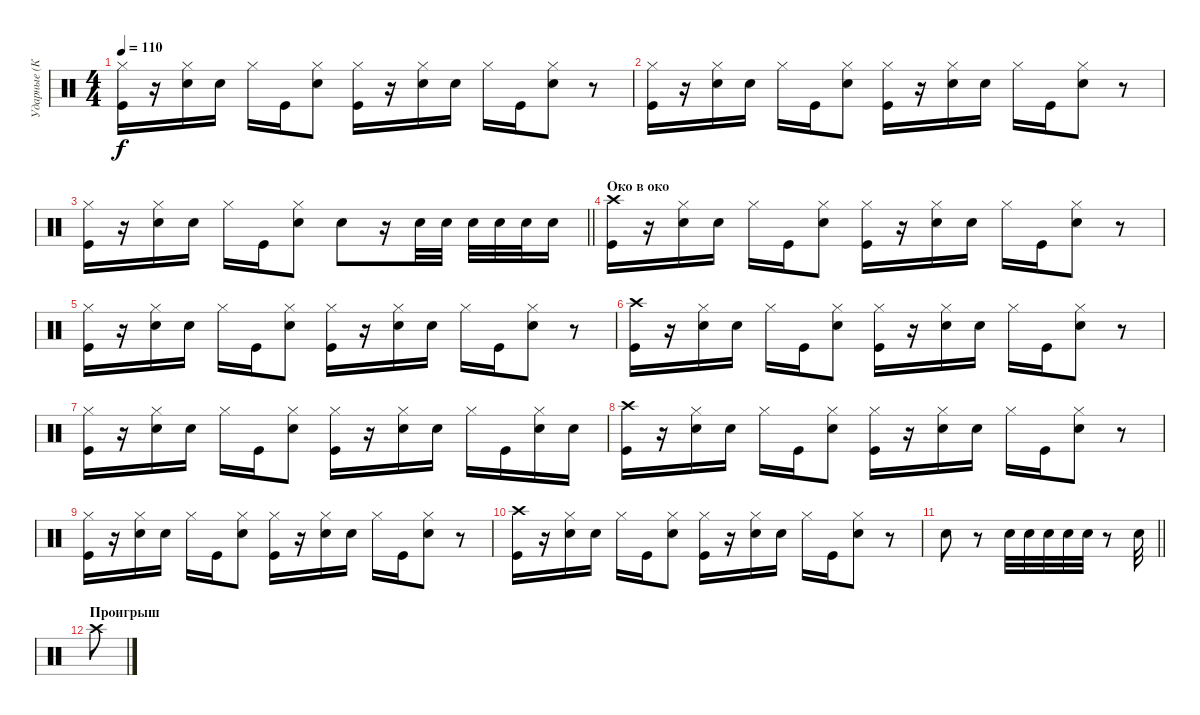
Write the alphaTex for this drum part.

\track ("Ударные (Коля Лысов" "Ударные (К") {instrument percussion}
\staff {score}
\articulation defaults
\ts (4 4)
\tempo 110
\clef neutral
\ks c
("Kick (hit)" "Hi-Hat (closed)").16{dy f} r.16 ("Snare (hit) 2" "Hi-Hat (closed)").16 "Snare (hit) 2".16 "Hi-Hat (closed)".16 "Kick (hit)".16 ("Snare (hit) 2" "Hi-Hat (closed)").8 ("Kick (hit)" "Hi-Hat (closed)").16 r.16 ("Snare (hit) 2" "Hi-Hat (closed)").16 "Snare (hit) 2".16 "Hi-Hat (closed)".16 "Kick (hit)".16 ("Snare (hit) 2" "Hi-Hat (closed)").8 r.8 |
("Kick (hit)" "Hi-Hat (closed)").16 r.16 ("Snare (hit) 2" "Hi-Hat (closed)").16 "Snare (hit) 2".16 "Hi-Hat (closed)".16 "Kick (hit)".16 ("Snare (hit) 2" "Hi-Hat (closed)").8 ("Kick (hit)" "Hi-Hat (closed)").16 r.16 ("Snare (hit) 2" "Hi-Hat (closed)").16 "Snare (hit) 2".16 "Hi-Hat (closed)".16 "Kick (hit)".16 ("Snare (hit) 2" "Hi-Hat (closed)").8 r.8 |
\barLineRight lightlight
("Kick (hit)" "Hi-Hat (closed)").16 r.16 ("Snare (hit) 2" "Hi-Hat (closed)").16 "Snare (hit) 2".16 "Hi-Hat (closed)".16 "Kick (hit)".16 ("Snare (hit) 2" "Hi-Hat (closed)").8 "Snare (hit) 2".8 r.16 "Snare (hit) 2".32 "Snare (hit) 2".32 "Snare (hit) 2".32 "Snare (hit) 2".32 "Snare (hit) 2".32 "Snare (hit) 2".16 |
\section ("" "Око в око")
("Kick (hit)" "Crash high (hit)").16 r.16 ("Snare (hit) 2" "Hi-Hat (closed)").16 "Snare (hit) 2".16 "Hi-Hat (closed)".16 "Kick (hit)".16 ("Snare (hit) 2" "Hi-Hat (closed)").8 ("Kick (hit)" "Hi-Hat (closed)").16 r.16 ("Snare (hit) 2" "Hi-Hat (closed)").16 "Snare (hit) 2".16 "Hi-Hat (closed)".16 "Kick (hit)".16 ("Snare (hit) 2" "Hi-Hat (closed)").8 r.8 |
("Kick (hit)" "Hi-Hat (closed)").16 r.16 ("Snare (hit) 2" "Hi-Hat (closed)").16 "Snare (hit) 2".16 "Hi-Hat (closed)".16 "Kick (hit)".16 ("Snare (hit) 2" "Hi-Hat (closed)").8 ("Kick (hit)" "Hi-Hat (closed)").16 r.16 ("Snare (hit) 2" "Hi-Hat (closed)").16 "Snare (hit) 2".16 "Hi-Hat (closed)".16 "Kick (hit)".16 ("Snare (hit) 2" "Hi-Hat (closed)").8 r.8 |
("Kick (hit)" "Crash high (hit)").16 r.16 ("Snare (hit) 2" "Hi-Hat (closed)").16 "Snare (hit) 2".16 "Hi-Hat (closed)".16 "Kick (hit)".16 ("Snare (hit) 2" "Hi-Hat (closed)").8 ("Kick (hit)" "Hi-Hat (closed)").16 r.16 ("Snare (hit) 2" "Hi-Hat (closed)").16 "Snare (hit) 2".16 "Hi-Hat (closed)".16 "Kick (hit)".16 ("Snare (hit) 2" "Hi-Hat (closed)").8 r.8 |
("Kick (hit)" "Hi-Hat (closed)").16 r.16 ("Snare (hit) 2" "Hi-Hat (closed)").16 "Snare (hit) 2".16 "Hi-Hat (closed)".16 "Kick (hit)".16 ("Snare (hit) 2" "Hi-Hat (closed)").8 ("Kick (hit)" "Hi-Hat (closed)").16 r.16 ("Snare (hit) 2" "Hi-Hat (closed)").16 "Snare (hit) 2".16 "Hi-Hat (closed)".16 "Kick (hit)".16 ("Snare (hit) 2" "Hi-Hat (closed)").16 "Snare (hit) 2".16 |
("Kick (hit)" "Crash high (hit)").16 r.16 ("Snare (hit) 2" "Hi-Hat (closed)").16 "Snare (hit) 2".16 "Hi-Hat (closed)".16 "Kick (hit)".16 ("Snare (hit) 2" "Hi-Hat (closed)").8 ("Kick (hit)" "Hi-Hat (closed)").16 r.16 ("Snare (hit) 2" "Hi-Hat (closed)").16 "Snare (hit) 2".16 "Hi-Hat (closed)".16 "Kick (hit)".16 ("Snare (hit) 2" "Hi-Hat (closed)").8 r.8 |
("Kick (hit)" "Hi-Hat (closed)").16 r.16 ("Snare (hit) 2" "Hi-Hat (closed)").16 "Snare (hit) 2".16 "Hi-Hat (closed)".16 "Kick (hit)".16 ("Snare (hit) 2" "Hi-Hat (closed)").8 ("Kick (hit)" "Hi-Hat (closed)").16 r.16 ("Snare (hit) 2" "Hi-Hat (closed)").16 "Snare (hit) 2".16 "Hi-Hat (closed)".16 "Kick (hit)".16 ("Snare (hit) 2" "Hi-Hat (closed)").8 r.8 |
("Kick (hit)" "Crash high (hit)").16 r.16 ("Snare (hit) 2" "Hi-Hat (closed)").16 "Snare (hit) 2".16 "Hi-Hat (closed)".16 "Kick (hit)".16 ("Snare (hit) 2" "Hi-Hat (closed)").8 ("Kick (hit)" "Hi-Hat (closed)").16 r.16 ("Snare (hit) 2" "Hi-Hat (closed)").16 "Snare (hit) 2".16 "Hi-Hat (closed)".16 "Kick (hit)".16 ("Snare (hit) 2" "Hi-Hat (closed)").8 r.8 |
\barLineRight lightlight "Snare (hit) 2".8
r.8 "Snare (hit) 2".32 "Snare (hit) 2".32 "Snare (hit) 2".32 "Snare (hit) 2".32 "Snare (hit) 2".32 r.8 "Snare (hit) 2".32 |
\section ("" "Проигрыш")
"Crash high (hit)".8
